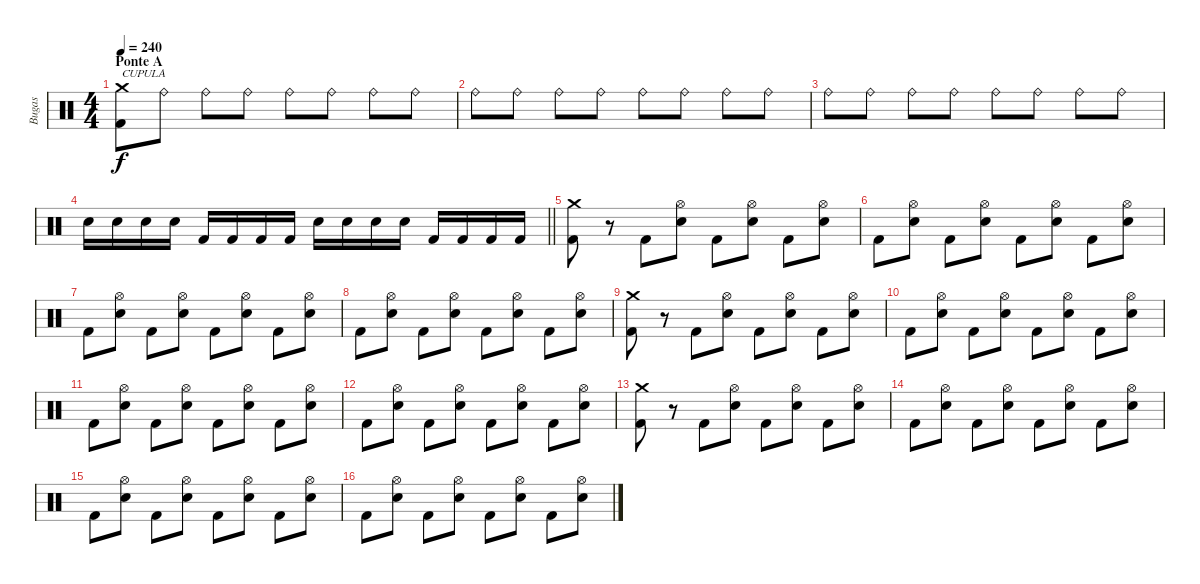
\track ("Bugas" "Bugas") {instrument percussion}
\staff {score}
\articulation defaults
\ts (4 4)
\section ("" "Ponte A")
\tempo 240
\clef neutral
\ks c
("Crash medium (hit)" "Kick (hit) 2").8{txt "CUPULA" dy f} "Ride (bell)".8 "Ride (bell)".8 "Ride (bell)".8 "Ride (bell)".8 "Ride (bell)".8 "Ride (bell)".8 "Ride (bell)".8 |
"Ride (bell)".8 "Ride (bell)".8 "Ride (bell)".8 "Ride (bell)".8 "Ride (bell)".8 "Ride (bell)".8 "Ride (bell)".8 "Ride (bell)".8 |
"Ride (bell)".8 "Ride (bell)".8 "Ride (bell)".8 "Ride (bell)".8 "Ride (bell)".8 "Ride (bell)".8 "Ride (bell)".8 "Ride (bell)".8 |
\barLineRight lightlight "Electric Snare (hit)".16 "Electric Snare (hit)".16 "Electric Snare (hit)".16 "Electric Snare (hit)".16 "Kick (hit) 2".16 "Kick (hit) 2".16 "Kick (hit) 2".16 "Kick (hit) 2".16 "Electric Snare (hit)".16 "Electric Snare (hit)".16 "Electric Snare (hit)".16 "Electric Snare (hit)".16 "Kick (hit) 2".16 "Kick (hit) 2".16 "Kick (hit) 2".16 "Kick (hit) 2".16
|
("Crash medium (hit)" "Kick (hit) 2").8 r.8 "Kick (hit) 2".8 ("Hi-Hat (open)" "Electric Snare (hit)").8 "Kick (hit) 2".8 ("Hi-Hat (open)" "Electric Snare (hit)").8 "Kick (hit) 2".8 ("Hi-Hat (open)" "Electric Snare (hit)").8 |
"Kick (hit) 2".8 ("Hi-Hat (open)" "Electric Snare (hit)").8 "Kick (hit) 2".8 ("Hi-Hat (open)" "Electric Snare (hit)").8 "Kick (hit) 2".8 ("Hi-Hat (open)" "Electric Snare (hit)").8 "Kick (hit) 2".8 ("Hi-Hat (open)" "Electric Snare (hit)").8 |
"Kick (hit) 2".8 ("Hi-Hat (open)" "Electric Snare (hit)").8 "Kick (hit) 2".8 ("Hi-Hat (open)" "Electric Snare (hit)").8 "Kick (hit) 2".8 ("Hi-Hat (open)" "Electric Snare (hit)").8 "Kick (hit) 2".8 ("Hi-Hat (open)" "Electric Snare (hit)").8 |
"Kick (hit) 2".8 ("Hi-Hat (open)" "Electric Snare (hit)").8 "Kick (hit) 2".8 ("Hi-Hat (open)" "Electric Snare (hit)").8 "Kick (hit) 2".8 ("Hi-Hat (open)" "Electric Snare (hit)").8 "Kick (hit) 2".8 ("Hi-Hat (open)" "Electric Snare (hit)").8 |
("Crash medium (hit)" "Kick (hit) 2").8 r.8 "Kick (hit) 2".8 ("Hi-Hat (open)" "Electric Snare (hit)").8 "Kick (hit) 2".8 ("Hi-Hat (open)" "Electric Snare (hit)").8 "Kick (hit) 2".8 ("Hi-Hat (open)" "Electric Snare (hit)").8 |
"Kick (hit) 2".8 ("Hi-Hat (open)" "Electric Snare (hit)").8 "Kick (hit) 2".8 ("Hi-Hat (open)" "Electric Snare (hit)").8 "Kick (hit) 2".8 ("Hi-Hat (open)" "Electric Snare (hit)").8 "Kick (hit) 2".8 ("Hi-Hat (open)" "Electric Snare (hit)").8 |
"Kick (hit) 2".8 ("Hi-Hat (open)" "Electric Snare (hit)").8 "Kick (hit) 2".8 ("Hi-Hat (open)" "Electric Snare (hit)").8 "Kick (hit) 2".8 ("Hi-Hat (open)" "Electric Snare (hit)").8 "Kick (hit) 2".8 ("Hi-Hat (open)" "Electric Snare (hit)").8 |
"Kick (hit) 2".8 ("Hi-Hat (open)" "Electric Snare (hit)").8 "Kick (hit) 2".8 ("Hi-Hat (open)" "Electric Snare (hit)").8 "Kick (hit) 2".8 ("Hi-Hat (open)" "Electric Snare (hit)").8 "Kick (hit) 2".8 ("Hi-Hat (open)" "Electric Snare (hit)").8 |
("Crash medium (hit)" "Kick (hit) 2").8 r.8 "Kick (hit) 2".8 ("Hi-Hat (open)" "Electric Snare (hit)").8 "Kick (hit) 2".8 ("Hi-Hat (open)" "Electric Snare (hit)").8 "Kick (hit) 2".8 ("Hi-Hat (open)" "Electric Snare (hit)").8 |
"Kick (hit) 2".8 ("Hi-Hat (open)" "Electric Snare (hit)").8 "Kick (hit) 2".8 ("Hi-Hat (open)" "Electric Snare (hit)").8 "Kick (hit) 2".8 ("Hi-Hat (open)" "Electric Snare (hit)").8 "Kick (hit) 2".8 ("Hi-Hat (open)" "Electric Snare (hit)").8 |
"Kick (hit) 2".8 ("Hi-Hat (open)" "Electric Snare (hit)").8 "Kick (hit) 2".8 ("Hi-Hat (open)" "Electric Snare (hit)").8 "Kick (hit) 2".8 ("Hi-Hat (open)" "Electric Snare (hit)").8 "Kick (hit) 2".8 ("Hi-Hat (open)" "Electric Snare (hit)").8 |
"Kick (hit) 2".8 ("Hi-Hat (open)" "Electric Snare (hit)").8 "Kick (hit) 2".8 ("Hi-Hat (open)" "Electric Snare (hit)").8 "Kick (hit) 2".8 ("Hi-Hat (open)" "Electric Snare (hit)").8 "Kick (hit) 2".8 ("Hi-Hat (open)" "Electric Snare (hit)").8
